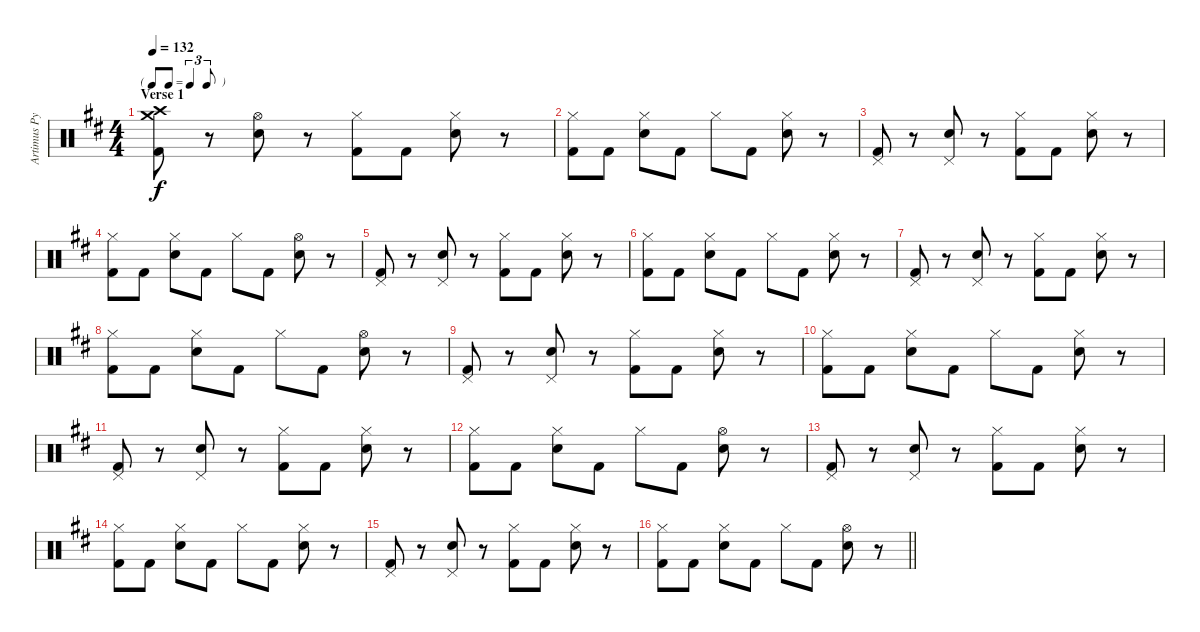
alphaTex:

\track ("Artimus Pyle - Drums" "Artimus Py") {solo instrument percussion}
\staff {score}
\articulation defaults
\ts (4 4)
\tf triplet8th
\section ("" "Verse 1")
\tempo 132
\clef neutral
\ks d
("Crash medium (hit)" "Crash high (hit)" "Kick (hit) 2").8{dy f} r.8 ("Snare (hit) 2" "Hi-Hat (open)").8 r.8 ("Hi-Hat (closed)" "Kick (hit) 2").8 "Kick (hit) 2".8 ("Snare (hit) 2" "Hi-Hat (closed)").8 r.8 |
("Hi-Hat (closed)" "Kick (hit) 2").8 "Kick (hit) 2".8 ("Snare (hit) 2" "Hi-Hat (closed)").8 "Kick (hit) 2".8 "Hi-Hat (closed)".8 "Kick (hit) 2".8 ("Snare (hit) 2" "Hi-Hat (closed)").8 r.8 |
("Pedal Hi-Hat (hit)" "Kick (hit) 2").8 r.8 ("Snare (hit) 2" "Pedal Hi-Hat (hit)").8 r.8 ("Hi-Hat (closed)" "Kick (hit) 2").8 "Kick (hit) 2".8 ("Snare (hit) 2" "Hi-Hat (closed)").8 r.8 |
("Hi-Hat (closed)" "Kick (hit) 2").8 "Kick (hit) 2".8 ("Snare (hit) 2" "Hi-Hat (closed)").8 "Kick (hit) 2".8 "Hi-Hat (closed)".8 "Kick (hit) 2".8 ("Snare (hit) 2" "Hi-Hat (open)").8 r.8 |
("Pedal Hi-Hat (hit)" "Kick (hit) 2").8 r.8 ("Snare (hit) 2" "Pedal Hi-Hat (hit)").8 r.8 ("Hi-Hat (closed)" "Kick (hit) 2").8 "Kick (hit) 2".8 ("Snare (hit) 2" "Hi-Hat (closed)").8 r.8 |
("Hi-Hat (closed)" "Kick (hit) 2").8 "Kick (hit) 2".8 ("Snare (hit) 2" "Hi-Hat (closed)").8 "Kick (hit) 2".8 "Hi-Hat (closed)".8 "Kick (hit) 2".8 ("Snare (hit) 2" "Hi-Hat (closed)").8 r.8 |
("Pedal Hi-Hat (hit)" "Kick (hit) 2").8 r.8 ("Snare (hit) 2" "Pedal Hi-Hat (hit)").8 r.8 ("Hi-Hat (closed)" "Kick (hit) 2").8 "Kick (hit) 2".8 ("Snare (hit) 2" "Hi-Hat (closed)").8 r.8 |
("Hi-Hat (closed)" "Kick (hit) 2").8 "Kick (hit) 2".8 ("Snare (hit) 2" "Hi-Hat (closed)").8 "Kick (hit) 2".8 "Hi-Hat (closed)".8 "Kick (hit) 2".8 ("Snare (hit) 2" "Hi-Hat (open)").8 r.8 |
("Pedal Hi-Hat (hit)" "Kick (hit) 2").8 r.8 ("Snare (hit) 2" "Pedal Hi-Hat (hit)").8 r.8 ("Hi-Hat (closed)" "Kick (hit) 2").8 "Kick (hit) 2".8 ("Snare (hit) 2" "Hi-Hat (closed)").8 r.8 |
("Hi-Hat (closed)" "Kick (hit) 2").8 "Kick (hit) 2".8 ("Snare (hit) 2" "Hi-Hat (closed)").8 "Kick (hit) 2".8 "Hi-Hat (closed)".8 "Kick (hit) 2".8 ("Snare (hit) 2" "Hi-Hat (closed)").8 r.8 |
("Pedal Hi-Hat (hit)" "Kick (hit) 2").8 r.8 ("Snare (hit) 2" "Pedal Hi-Hat (hit)").8 r.8 ("Hi-Hat (closed)" "Kick (hit) 2").8 "Kick (hit) 2".8 ("Snare (hit) 2" "Hi-Hat (closed)").8 r.8 |
("Hi-Hat (closed)" "Kick (hit) 2").8 "Kick (hit) 2".8 ("Snare (hit) 2" "Hi-Hat (closed)").8 "Kick (hit) 2".8 "Hi-Hat (closed)".8 "Kick (hit) 2".8 ("Snare (hit) 2" "Hi-Hat (open)").8 r.8 |
("Pedal Hi-Hat (hit)" "Kick (hit) 2").8 r.8 ("Snare (hit) 2" "Pedal Hi-Hat (hit)").8 r.8 ("Hi-Hat (closed)" "Kick (hit) 2").8 "Kick (hit) 2".8 ("Snare (hit) 2" "Hi-Hat (closed)").8 r.8 |
("Hi-Hat (closed)" "Kick (hit) 2").8 "Kick (hit) 2".8 ("Snare (hit) 2" "Hi-Hat (closed)").8 "Kick (hit) 2".8 "Hi-Hat (closed)".8 "Kick (hit) 2".8 ("Snare (hit) 2" "Hi-Hat (closed)").8 r.8 |
("Pedal Hi-Hat (hit)" "Kick (hit) 2").8 r.8 ("Snare (hit) 2" "Pedal Hi-Hat (hit)").8 r.8 ("Hi-Hat (closed)" "Kick (hit) 2").8 "Kick (hit) 2".8 ("Snare (hit) 2" "Hi-Hat (closed)").8 r.8 |
\barLineRight lightlight
("Hi-Hat (closed)" "Kick (hit) 2").8 "Kick (hit) 2".8 ("Snare (hit) 2" "Hi-Hat (closed)").8 "Kick (hit) 2".8 "Hi-Hat (closed)".8 "Kick (hit) 2".8 ("Snare (hit) 2" "Hi-Hat (open)").8 r.8
